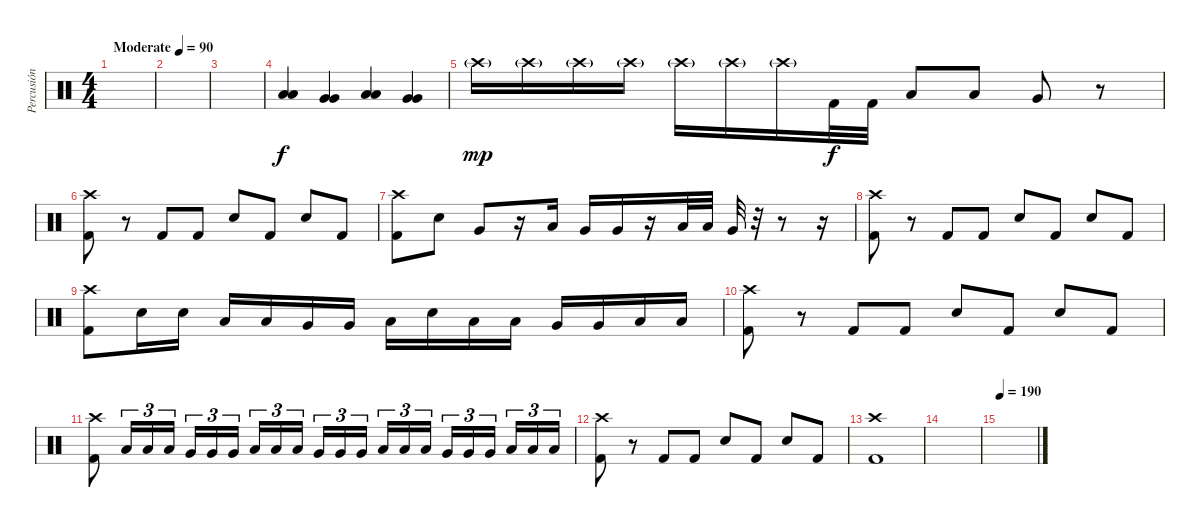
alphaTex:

\track ("Percusión" "Percusión") {instrument percussion}
\staff {score}
\articulation defaults
\ts (4 4)
\tempo (90 "Moderate")
\clef neutral
\ks c
|
|
|
("Low Tom (hit)" "Low Tom (hit)").4 ("Very Low Tom (hit)" "Very Low Tom (hit)").4 ("Low Floor Tom (hit)" "Low Floor Tom (hit)").4 ("Very Low Tom (hit)" "Very Low Tom (hit)").4 |
"Crash high (hit)"{g}.16{dy mp} "Crash high (hit)"{g}.16 "Crash high (hit)"{g}.16 "Crash high (hit)"{g}.16 "Crash high (hit)"{g}.16 "Crash high (hit)"{g}.16 "Crash high (hit)"{g}.16 "Kick (hit) 2".32{dy f} "Kick (hit) 2".32 "Low Tom (hit)".8 "Low Tom (hit)".8 "Very Low Tom (hit)".8 r.8 |
("Crash high (hit)" "Kick (hit) 2").8 r.8 "Kick (hit) 2".8 "Kick (hit) 2".8 "Electric Snare (hit)".8 "Kick (hit) 2".8 "Electric Snare (hit)".8 "Kick (hit) 2".8 |
("Crash high (hit)" "Kick (hit) 2").8 "Electric Snare (hit)".8 "Very Low Tom (hit)".8 r.16 "Low Floor Tom (hit)".16 "Very Low Tom (hit)".16 "Very Low Tom (hit)".16 r.16 "Low Tom (hit)".32 "Low Tom (hit)".32 "Very Low Tom (hit)".32 r.32 r.8 r.16 |
("Crash high (hit)" "Kick (hit) 2").8 r.8 "Kick (hit) 2".8 "Kick (hit) 2".8 "Electric Snare (hit)".8 "Kick (hit) 2".8 "Electric Snare (hit)".8 "Kick (hit) 2".8 |
("Crash high (hit)" "Kick (hit) 2").8 "Electric Snare (hit)".16 "Electric Snare (hit)".16 "Low Tom (hit)".16 "Low Tom (hit)".16 "Very Low Tom (hit)".16 "Very Low Tom (hit)".16 "Low Floor Tom (hit)".16 "Electric Snare (hit)".16 "Low Tom (hit)".16 "Low Tom (hit)".16 "Very Low Tom (hit)".16 "Very Low Tom (hit)".16 "Low Floor Tom (hit)".16 "Low Floor Tom (hit)".16 |
("Crash high (hit)" "Kick (hit) 2").8 r.8 "Kick (hit) 2".8 "Kick (hit) 2".8 "Electric Snare (hit)".8 "Kick (hit) 2".8 "Electric Snare (hit)".8 "Kick (hit) 2".8 |
("Crash high (hit)" "Kick (hit) 2").8 "Low Tom (hit)".16{tu (3 2)} "Low Tom (hit)".16{tu (3 2)} "Low Tom (hit)".16{tu (3 2)} "Very Low Tom (hit)".16{tu (3 2)} "Very Low Tom (hit)".16{tu (3 2)} "Very Low Tom (hit)".16{tu (3 2) beam splitsecondary} "Low Floor Tom (hit)".16{tu (3 2)} "Low Floor Tom (hit)".16{tu (3 2)} "Low Floor Tom (hit)".16{tu (3 2)} "Very Low Tom (hit)".16{tu (3 2)} "Very Low Tom (hit)".16{tu (3 2)} "Very Low Tom (hit)".16{tu (3 2) beam splitsecondary} "Low Tom (hit)".16{tu (3 2)} "Low Tom (hit)".16{tu (3 2)} "Low Tom (hit)".16{tu (3 2)} "Very Low Tom (hit)".16{tu (3 2)} "Very Low Tom (hit)".16{tu (3 2)} "Very Low Tom (hit)".16{tu (3 2) beam splitsecondary} "Low Floor Tom (hit)".16{tu (3 2)} "Low Floor Tom (hit)".16{tu (3 2)} "Low Floor Tom (hit)".16{tu (3 2)} |
("Crash high (hit)" "Kick (hit) 2").8 r.8 "Kick (hit) 2".8 "Kick (hit) 2".8 "Electric Snare (hit)".8 "Kick (hit) 2".8 "Electric Snare (hit)".8 "Kick (hit) 2".8 |
("Crash high (hit)" "Kick (hit) 2").1 |
|
\tempo 190
